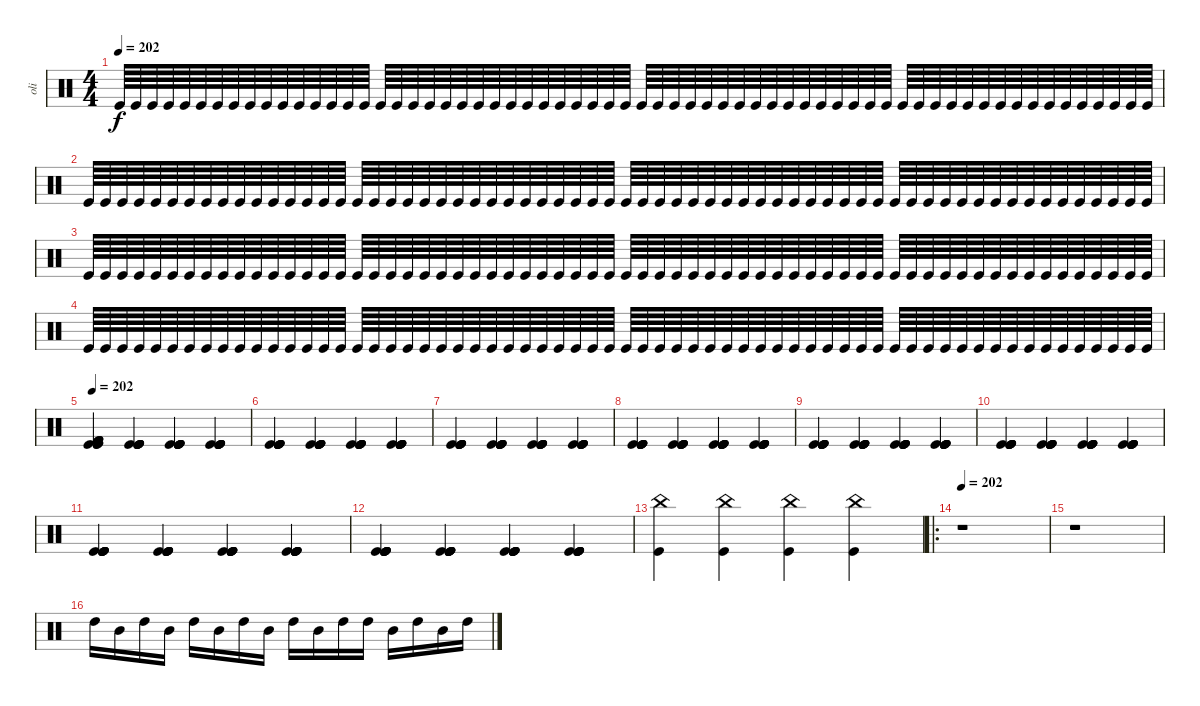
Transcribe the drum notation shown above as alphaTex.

\track ("oli" "oli") {instrument percussion}
\staff {score}
\articulation defaults
\ts (4 4)
\tempo 202
\clef neutral
\ks c "Kick (hit)".64{dy f} "Kick (hit)".64 "Kick (hit)".64 "Kick (hit)".64 "Kick (hit)".64 "Kick (hit)".64 "Kick (hit)".64 "Kick (hit)".64 "Kick (hit)".64 "Kick (hit)".64 "Kick (hit)".64 "Kick (hit)".64 "Kick (hit)".64 "Kick (hit)".64 "Kick (hit)".64 "Kick (hit)".64 "Kick (hit)".64 "Kick (hit)".64 "Kick (hit)".64 "Kick (hit)".64 "Kick (hit)".64 "Kick (hit)".64 "Kick (hit)".64 "Kick (hit)".64 "Kick (hit)".64 "Kick (hit)".64 "Kick (hit)".64 "Kick (hit)".64 "Kick (hit)".64 "Kick (hit)".64 "Kick (hit)".64 "Kick (hit)".64 "Kick (hit)".64 "Kick (hit)".64 "Kick (hit)".64 "Kick (hit)".64 "Kick (hit)".64 "Kick (hit)".64 "Kick (hit)".64 "Kick (hit)".64 "Kick (hit)".64 "Kick (hit)".64 "Kick (hit)".64 "Kick (hit)".64 "Kick (hit)".64 "Kick (hit)".64 "Kick (hit)".64 "Kick (hit)".64 "Kick (hit)".64 "Kick (hit)".64 "Kick (hit)".64 "Kick (hit)".64 "Kick (hit)".64 "Kick (hit)".64 "Kick (hit)".64 "Kick (hit)".64 "Kick (hit)".64 "Kick (hit)".64 "Kick (hit)".64 "Kick (hit)".64 "Kick (hit)".64 "Kick (hit)".64 "Kick (hit)".64 "Kick (hit)".64
|
"Kick (hit)".64 "Kick (hit)".64 "Kick (hit)".64 "Kick (hit)".64 "Kick (hit)".64 "Kick (hit)".64 "Kick (hit)".64 "Kick (hit)".64 "Kick (hit)".64 "Kick (hit)".64 "Kick (hit)".64 "Kick (hit)".64 "Kick (hit)".64 "Kick (hit)".64 "Kick (hit)".64 "Kick (hit)".64 "Kick (hit)".64 "Kick (hit)".64 "Kick (hit)".64 "Kick (hit)".64 "Kick (hit)".64 "Kick (hit)".64 "Kick (hit)".64 "Kick (hit)".64 "Kick (hit)".64 "Kick (hit)".64 "Kick (hit)".64 "Kick (hit)".64 "Kick (hit)".64 "Kick (hit)".64 "Kick (hit)".64 "Kick (hit)".64 "Kick (hit)".64 "Kick (hit)".64 "Kick (hit)".64 "Kick (hit)".64 "Kick (hit)".64 "Kick (hit)".64 "Kick (hit)".64 "Kick (hit)".64 "Kick (hit)".64 "Kick (hit)".64 "Kick (hit)".64 "Kick (hit)".64 "Kick (hit)".64 "Kick (hit)".64 "Kick (hit)".64 "Kick (hit)".64 "Kick (hit)".64 "Kick (hit)".64 "Kick (hit)".64 "Kick (hit)".64 "Kick (hit)".64 "Kick (hit)".64 "Kick (hit)".64 "Kick (hit)".64 "Kick (hit)".64 "Kick (hit)".64 "Kick (hit)".64 "Kick (hit)".64 "Kick (hit)".64 "Kick (hit)".64 "Kick (hit)".64 "Kick (hit)".64 |
"Kick (hit)".64 "Kick (hit)".64 "Kick (hit)".64 "Kick (hit)".64 "Kick (hit)".64 "Kick (hit)".64 "Kick (hit)".64 "Kick (hit)".64 "Kick (hit)".64 "Kick (hit)".64 "Kick (hit)".64 "Kick (hit)".64 "Kick (hit)".64 "Kick (hit)".64 "Kick (hit)".64 "Kick (hit)".64 "Kick (hit)".64 "Kick (hit)".64 "Kick (hit)".64 "Kick (hit)".64 "Kick (hit)".64 "Kick (hit)".64 "Kick (hit)".64 "Kick (hit)".64 "Kick (hit)".64 "Kick (hit)".64 "Kick (hit)".64 "Kick (hit)".64 "Kick (hit)".64 "Kick (hit)".64 "Kick (hit)".64 "Kick (hit)".64 "Kick (hit)".64 "Kick (hit)".64 "Kick (hit)".64 "Kick (hit)".64 "Kick (hit)".64 "Kick (hit)".64 "Kick (hit)".64 "Kick (hit)".64 "Kick (hit)".64 "Kick (hit)".64 "Kick (hit)".64 "Kick (hit)".64 "Kick (hit)".64 "Kick (hit)".64 "Kick (hit)".64 "Kick (hit)".64 "Kick (hit)".64 "Kick (hit)".64 "Kick (hit)".64 "Kick (hit)".64 "Kick (hit)".64 "Kick (hit)".64 "Kick (hit)".64 "Kick (hit)".64 "Kick (hit)".64 "Kick (hit)".64 "Kick (hit)".64 "Kick (hit)".64 "Kick (hit)".64 "Kick (hit)".64 "Kick (hit)".64 "Kick (hit)".64 |
"Kick (hit)".64 "Kick (hit)".64 "Kick (hit)".64 "Kick (hit)".64 "Kick (hit)".64 "Kick (hit)".64 "Kick (hit)".64 "Kick (hit)".64 "Kick (hit)".64 "Kick (hit)".64 "Kick (hit)".64 "Kick (hit)".64 "Kick (hit)".64 "Kick (hit)".64 "Kick (hit)".64 "Kick (hit)".64 "Kick (hit)".64 "Kick (hit)".64 "Kick (hit)".64 "Kick (hit)".64 "Kick (hit)".64 "Kick (hit)".64 "Kick (hit)".64 "Kick (hit)".64 "Kick (hit)".64 "Kick (hit)".64 "Kick (hit)".64 "Kick (hit)".64 "Kick (hit)".64 "Kick (hit)".64 "Kick (hit)".64 "Kick (hit)".64 "Kick (hit)".64 "Kick (hit)".64 "Kick (hit)".64 "Kick (hit)".64 "Kick (hit)".64 "Kick (hit)".64 "Kick (hit)".64 "Kick (hit)".64 "Kick (hit)".64 "Kick (hit)".64 "Kick (hit)".64 "Kick (hit)".64 "Kick (hit)".64 "Kick (hit)".64 "Kick (hit)".64 "Kick (hit)".64 "Kick (hit)".64 "Kick (hit)".64 "Kick (hit)".64 "Kick (hit)".64 "Kick (hit)".64 "Kick (hit)".64 "Kick (hit)".64 "Kick (hit)".64 "Kick (hit)".64 "Kick (hit)".64 "Kick (hit)".64 "Kick (hit)".64 "Kick (hit)".64 "Kick (hit)".64 "Kick (hit)".64 "Kick (hit)".64 |
\tempo 202
("Kick (hit) 2" "Kick (hit)" "Kick (hit) 2" "Kick (hit)" "Kick (hit) 2" "Kick (hit)").4 ("Kick (hit)" "Kick (hit)" "Kick (hit)" "Kick (hit)" "Kick (hit)" "Kick (hit)").4 ("Kick (hit)" "Kick (hit)" "Kick (hit)" "Kick (hit)" "Kick (hit)" "Kick (hit)").4 ("Kick (hit)" "Kick (hit)" "Kick (hit)" "Kick (hit)" "Kick (hit)" "Kick (hit)").4 |
("Kick (hit)" "Kick (hit)" "Kick (hit)" "Kick (hit)" "Kick (hit)" "Kick (hit)").4 ("Kick (hit)" "Kick (hit)" "Kick (hit)" "Kick (hit)" "Kick (hit)" "Kick (hit)").4 ("Kick (hit)" "Kick (hit)" "Kick (hit)" "Kick (hit)" "Kick (hit)" "Kick (hit)").4 ("Kick (hit)" "Kick (hit)" "Kick (hit)" "Kick (hit)" "Kick (hit)" "Kick (hit)").4 |
("Kick (hit)" "Kick (hit)" "Kick (hit)" "Kick (hit)" "Kick (hit)" "Kick (hit)").4 ("Kick (hit)" "Kick (hit)" "Kick (hit)" "Kick (hit)" "Kick (hit)" "Kick (hit)").4 ("Kick (hit)" "Kick (hit)" "Kick (hit)" "Kick (hit)" "Kick (hit)" "Kick (hit)").4 ("Kick (hit)" "Kick (hit)" "Kick (hit)" "Kick (hit)" "Kick (hit)" "Kick (hit)").4 |
("Kick (hit)" "Kick (hit)" "Kick (hit)" "Kick (hit)" "Kick (hit)" "Kick (hit)").4 ("Kick (hit)" "Kick (hit)" "Kick (hit)" "Kick (hit)" "Kick (hit)" "Kick (hit)").4 ("Kick (hit)" "Kick (hit)" "Kick (hit)" "Kick (hit)" "Kick (hit)" "Kick (hit)").4 ("Kick (hit)" "Kick (hit)" "Kick (hit)" "Kick (hit)" "Kick (hit)" "Kick (hit)").4 |
("Kick (hit)" "Kick (hit)" "Kick (hit)" "Kick (hit)" "Kick (hit)" "Kick (hit)").4 ("Kick (hit)" "Kick (hit)" "Kick (hit)" "Kick (hit)" "Kick (hit)" "Kick (hit)").4 ("Kick (hit)" "Kick (hit)" "Kick (hit)" "Kick (hit)" "Kick (hit)" "Kick (hit)").4 ("Kick (hit)" "Kick (hit)" "Kick (hit)" "Kick (hit)" "Kick (hit)" "Kick (hit)").4 |
("Kick (hit)" "Kick (hit)" "Kick (hit)" "Kick (hit)" "Kick (hit)" "Kick (hit)").4 ("Kick (hit)" "Kick (hit)" "Kick (hit)" "Kick (hit)" "Kick (hit)" "Kick (hit)").4 ("Kick (hit)" "Kick (hit)" "Kick (hit)" "Kick (hit)" "Kick (hit)" "Kick (hit)").4 ("Kick (hit)" "Kick (hit)" "Kick (hit)" "Kick (hit)" "Kick (hit)" "Kick (hit)").4 |
("Kick (hit)" "Kick (hit)" "Kick (hit)" "Kick (hit)" "Kick (hit)" "Kick (hit)").4 ("Kick (hit)" "Kick (hit)" "Kick (hit)" "Kick (hit)" "Kick (hit)" "Kick (hit)").4 ("Kick (hit)" "Kick (hit)" "Kick (hit)" "Kick (hit)" "Kick (hit)" "Kick (hit)").4 ("Kick (hit)" "Kick (hit)" "Kick (hit)" "Kick (hit)" "Kick (hit)" "Kick (hit)").4 |
("Kick (hit)" "Kick (hit)" "Kick (hit)" "Kick (hit)" "Kick (hit)" "Kick (hit)").4 ("Kick (hit)" "Kick (hit)" "Kick (hit)" "Kick (hit)" "Kick (hit)" "Kick (hit)").4 ("Kick (hit)" "Kick (hit)" "Kick (hit)" "Kick (hit)" "Kick (hit)" "Kick (hit)").4 ("Kick (hit)" "Kick (hit)" "Kick (hit)" "Kick (hit)" "Kick (hit)" "Kick (hit)").4 |
("China (hit)" "Kick (hit)").4 ("China (hit)" "Kick (hit)").4 ("China (hit)" "Kick (hit)").4 ("China (hit)" "Kick (hit)").4 |
\ro
\tempo 202
r.1 |
r.1 |
"High Tom (hit)".16 "Mid Tom (hit)".16 "High Tom (hit)".16 "Mid Tom (hit)".16 "High Tom (hit)".16 "Mid Tom (hit)".16 "High Tom (hit)".16 "Mid Tom (hit)".16 "High Tom (hit)".16 "Mid Tom (hit)".16 "High Tom (hit)".16 "High Tom (hit)".16 "Mid Tom (hit)".16 "High Tom (hit)".16 "Mid Tom (hit)".16 "High Tom (hit)".16
